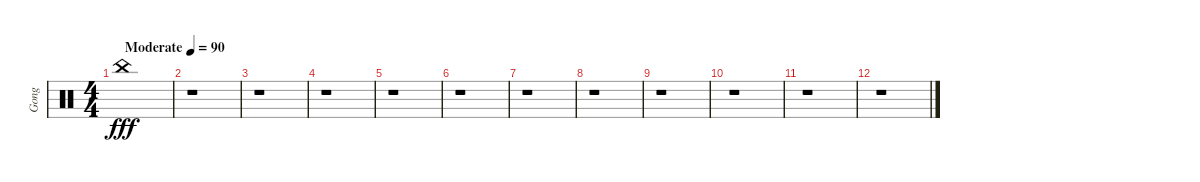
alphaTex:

\track ("Gong" "Gong") {instrument percussion}
\staff {score}
\articulation defaults
\ts (4 4)
\tempo (90 "Moderate")
\clef neutral
\ks c "China (hit)".1{dy fff}
|
r.1 |
r.1 |
r.1 |
r.1 |
r.1 |
r.1 |
r.1 |
r.1 |
r.1 |
r.1 |
r.1
